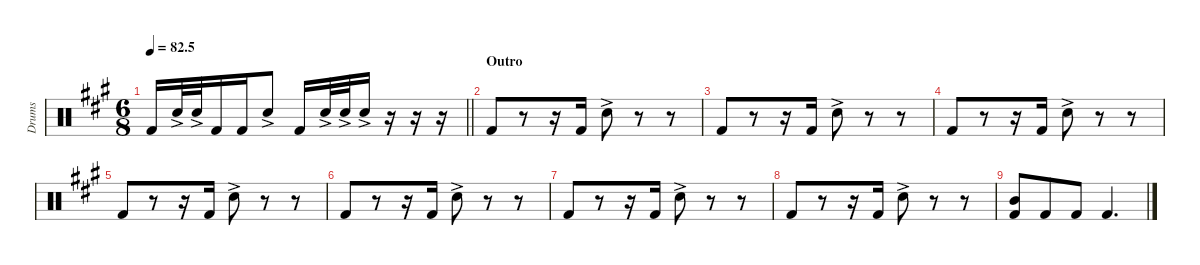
\defaultSystemsLayout 4
\hideDynamics
\bracketExtendMode nobrackets
\otherSystemsTrackNameOrientation horizontal
\track ("F&S" "Drums") {instrument percussion}
\staff {score}
\articulation defaults
\ts (6 8)
\tempo
82.5
\accidentals auto
\clef neutral
\ottava regular
\simile none
\scale
0.333333
\barLineRight lightlight
\ks a "Kick (hit) 2"{acc forcenatural}.16{dy f} "Snare (hit) 2"{ac acc forcenatural}.32 "Snare (hit) 2"{ac acc forcenatural}.32 "Kick (hit) 2"{acc forcenatural}.16 "Kick (hit) 2"{acc forcenatural}.16 "Snare (hit) 2"{ac acc forcenatural}.8 "Kick (hit) 2"{acc forcenatural}.16 "Snare (hit) 2"{ac acc forcenatural}.32 "Snare (hit) 2"{ac acc forcenatural}.32 "Snare (hit) 2"{ac acc forcenatural}.16
r.16 r.16 r.16 |
\section ("" "Outro")
\scale
0.333333 "Kick (hit) 2"{acc forcenatural}.8 r.8 r.16 "Kick (hit) 2"{acc forcenatural}.16 "Snare (hit) 2"{ac acc forcenatural}.8 r.8 r.8 |
\scale
0.333333 "Kick (hit) 2"{acc forcenatural}.8 r.8 r.16 "Kick (hit) 2"{acc forcenatural}.16 "Snare (hit) 2"{ac acc forcenatural}.8 r.8 r.8 |
\scale
0.333333 "Kick (hit) 2"{acc forcenatural}.8 r.8 r.16 "Kick (hit) 2"{acc forcenatural}.16 "Snare (hit) 2"{ac acc forcenatural}.8 r.8 r.8 |
\scale
0.333333 "Kick (hit) 2"{acc forcenatural}.8 r.8 r.16 "Kick (hit) 2"{acc forcenatural}.16 "Snare (hit) 2"{ac acc forcenatural}.8 r.8 r.8 |
\scale
0.333333 "Kick (hit) 2"{acc forcenatural}.8 r.8 r.16 "Kick (hit) 2"{acc forcenatural}.16 "Snare (hit) 2"{ac acc forcenatural}.8 r.8 r.8 |
\scale
0.333333 "Kick (hit) 2"{acc forcenatural}.8 r.8 r.16 "Kick (hit) 2"{acc forcenatural}.16 "Snare (hit) 2"{ac acc forcenatural}.8 r.8 r.8 |
\scale
0.333333 "Kick (hit) 2"{acc forcenatural}.8 r.8 r.16 "Kick (hit) 2"{acc forcenatural}.16 "Snare (hit) 2"{ac acc forcenatural}.8 r.8 r.8 |
\scale
0.333333 ("Mid Tom (hit)"{acc forcenatural} "Kick (hit) 2"{acc forcenatural}).8 "Kick (hit) 2"{acc forcenatural}.8 "Kick (hit) 2"{acc forcenatural}.8 "Kick (hit) 2"{acc forcenatural}.4{d} |
\scale
0.333333 |
\scale
0.333333 |
\scale
0.333333
